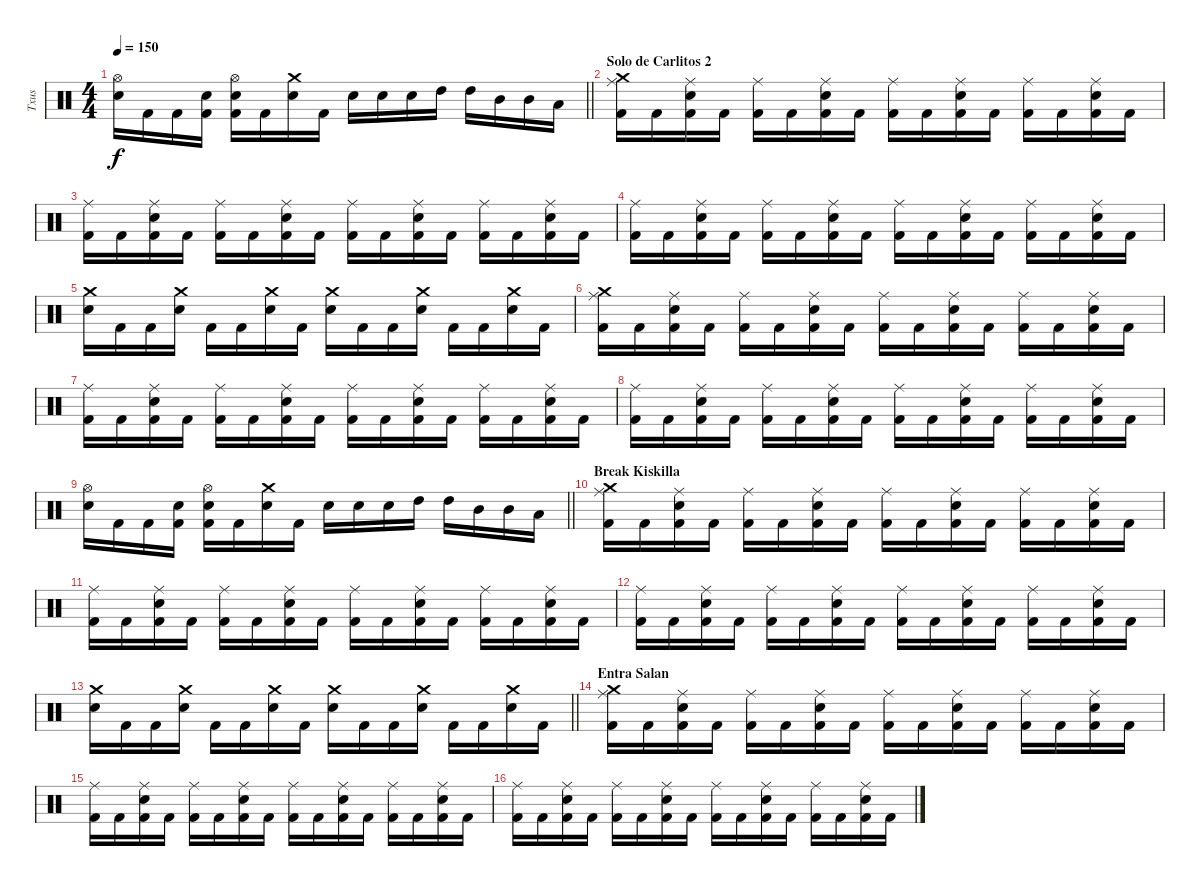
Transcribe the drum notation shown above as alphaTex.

\track ("Txus" "Txus") {instrument percussion}
\staff {score}
\articulation defaults
\ts (4 4)
\tempo 150
\clef neutral
\barLineRight lightlight
\ks c
("Hi-Hat (open)" "Electric Snare (hit)").16{dy f} "Kick (hit) 2".16 "Kick (hit) 2".16 ("Electric Snare (hit)" "Kick (hit) 2").16 ("Hi-Hat (open)" "Electric Snare (hit)" "Kick (hit) 2").16 "Kick (hit) 2".16 ("Crash medium (hit)" "Electric Snare (hit)").16 "Kick (hit) 2".16 "Electric Snare (hit)".16 "Electric Snare (hit)".16 "Electric Snare (hit)".16 "High Tom (hit)".16 "High Tom (hit)".16 "Mid Tom (hit)".16 "Mid Tom (hit)".16 "Low Tom (hit)".16 |
\section ("" "Solo de Carlitos 2")
("Crash medium (hit)" "Ride (middle)" "Kick (hit) 2").16 "Kick (hit) 2".16 ("Ride (middle)" "Electric Snare (hit)" "Kick (hit) 2").16 "Kick (hit) 2".16 ("Ride (middle)" "Kick (hit) 2").16 "Kick (hit) 2".16 ("Ride (middle)" "Electric Snare (hit)" "Kick (hit) 2").16 "Kick (hit) 2".16 ("Ride (middle)" "Kick (hit) 2").16 "Kick (hit) 2".16 ("Ride (middle)" "Electric Snare (hit)" "Kick (hit) 2").16 "Kick (hit) 2".16 ("Ride (middle)" "Kick (hit) 2").16 "Kick (hit) 2".16 ("Ride (middle)" "Electric Snare (hit)" "Kick (hit) 2").16 "Kick (hit) 2".16 |
("Ride (middle)" "Kick (hit) 2").16 "Kick (hit) 2".16 ("Ride (middle)" "Electric Snare (hit)" "Kick (hit) 2").16 "Kick (hit) 2".16 ("Ride (middle)" "Kick (hit) 2").16 "Kick (hit) 2".16 ("Ride (middle)" "Electric Snare (hit)" "Kick (hit) 2").16 "Kick (hit) 2".16 ("Ride (middle)" "Kick (hit) 2").16 "Kick (hit) 2".16 ("Ride (middle)" "Electric Snare (hit)" "Kick (hit) 2").16 "Kick (hit) 2".16 ("Ride (middle)" "Kick (hit) 2").16 "Kick (hit) 2".16 ("Ride (middle)" "Electric Snare (hit)" "Kick (hit) 2").16 "Kick (hit) 2".16 |
("Ride (middle)" "Kick (hit) 2").16 "Kick (hit) 2".16 ("Ride (middle)" "Electric Snare (hit)" "Kick (hit) 2").16 "Kick (hit) 2".16 ("Ride (middle)" "Kick (hit) 2").16 "Kick (hit) 2".16 ("Ride (middle)" "Electric Snare (hit)" "Kick (hit) 2").16 "Kick (hit) 2".16 ("Ride (middle)" "Kick (hit) 2").16 "Kick (hit) 2".16 ("Ride (middle)" "Electric Snare (hit)" "Kick (hit) 2").16 "Kick (hit) 2".16 ("Ride (middle)" "Kick (hit) 2").16 "Kick (hit) 2".16 ("Ride (middle)" "Electric Snare (hit)" "Kick (hit) 2").16 "Kick (hit) 2".16 |
("Crash medium (hit)" "Electric Snare (hit)").16 "Kick (hit) 2".16 "Kick (hit) 2".16 ("Crash medium (hit)" "Electric Snare (hit)").16 "Kick (hit) 2".16 "Kick (hit) 2".16 ("Crash medium (hit)" "Electric Snare (hit)").16 "Kick (hit) 2".16 ("Crash medium (hit)" "Electric Snare (hit)").16 "Kick (hit) 2".16 "Kick (hit) 2".16 ("Crash medium (hit)" "Electric Snare (hit)").16 "Kick (hit) 2".16 "Kick (hit) 2".16 ("Crash medium (hit)" "Electric Snare (hit)").16 "Kick (hit) 2".16 |
("Crash medium (hit)" "Ride (middle)" "Kick (hit) 2").16 "Kick (hit) 2".16 ("Ride (middle)" "Electric Snare (hit)" "Kick (hit) 2").16 "Kick (hit) 2".16 ("Ride (middle)" "Kick (hit) 2").16 "Kick (hit) 2".16 ("Ride (middle)" "Electric Snare (hit)" "Kick (hit) 2").16 "Kick (hit) 2".16 ("Ride (middle)" "Kick (hit) 2").16 "Kick (hit) 2".16 ("Ride (middle)" "Electric Snare (hit)" "Kick (hit) 2").16 "Kick (hit) 2".16 ("Ride (middle)" "Kick (hit) 2").16 "Kick (hit) 2".16 ("Ride (middle)" "Electric Snare (hit)" "Kick (hit) 2").16 "Kick (hit) 2".16 |
("Ride (middle)" "Kick (hit) 2").16 "Kick (hit) 2".16 ("Ride (middle)" "Electric Snare (hit)" "Kick (hit) 2").16 "Kick (hit) 2".16 ("Ride (middle)" "Kick (hit) 2").16 "Kick (hit) 2".16 ("Ride (middle)" "Electric Snare (hit)" "Kick (hit) 2").16 "Kick (hit) 2".16 ("Ride (middle)" "Kick (hit) 2").16 "Kick (hit) 2".16 ("Ride (middle)" "Electric Snare (hit)" "Kick (hit) 2").16 "Kick (hit) 2".16 ("Ride (middle)" "Kick (hit) 2").16 "Kick (hit) 2".16 ("Ride (middle)" "Electric Snare (hit)" "Kick (hit) 2").16 "Kick (hit) 2".16 |
("Ride (middle)" "Kick (hit) 2").16 "Kick (hit) 2".16 ("Ride (middle)" "Electric Snare (hit)" "Kick (hit) 2").16 "Kick (hit) 2".16 ("Ride (middle)" "Kick (hit) 2").16 "Kick (hit) 2".16 ("Ride (middle)" "Electric Snare (hit)" "Kick (hit) 2").16 "Kick (hit) 2".16 ("Ride (middle)" "Kick (hit) 2").16 "Kick (hit) 2".16 ("Ride (middle)" "Electric Snare (hit)" "Kick (hit) 2").16 "Kick (hit) 2".16 ("Ride (middle)" "Kick (hit) 2").16 "Kick (hit) 2".16 ("Ride (middle)" "Electric Snare (hit)" "Kick (hit) 2").16 "Kick (hit) 2".16 |
\barLineRight lightlight
("Hi-Hat (open)" "Electric Snare (hit)").16 "Kick (hit) 2".16 "Kick (hit) 2".16 ("Electric Snare (hit)" "Kick (hit) 2").16 ("Hi-Hat (open)" "Electric Snare (hit)" "Kick (hit) 2").16 "Kick (hit) 2".16 ("Crash medium (hit)" "Electric Snare (hit)").16 "Kick (hit) 2".16 "Electric Snare (hit)".16 "Electric Snare (hit)".16 "Electric Snare (hit)".16 "High Tom (hit)".16 "High Tom (hit)".16 "Mid Tom (hit)".16 "Mid Tom (hit)".16 "Low Tom (hit)".16 |
\section ("" "Break Kiskilla")
("Crash medium (hit)" "Ride (middle)" "Kick (hit) 2").16 "Kick (hit) 2".16 ("Ride (middle)" "Electric Snare (hit)" "Kick (hit) 2").16 "Kick (hit) 2".16 ("Ride (middle)" "Kick (hit) 2").16 "Kick (hit) 2".16 ("Ride (middle)" "Electric Snare (hit)" "Kick (hit) 2").16 "Kick (hit) 2".16 ("Ride (middle)" "Kick (hit) 2").16 "Kick (hit) 2".16 ("Ride (middle)" "Electric Snare (hit)" "Kick (hit) 2").16 "Kick (hit) 2".16 ("Ride (middle)" "Kick (hit) 2").16 "Kick (hit) 2".16 ("Ride (middle)" "Electric Snare (hit)" "Kick (hit) 2").16 "Kick (hit) 2".16 |
("Ride (middle)" "Kick (hit) 2").16 "Kick (hit) 2".16 ("Ride (middle)" "Electric Snare (hit)" "Kick (hit) 2").16 "Kick (hit) 2".16 ("Ride (middle)" "Kick (hit) 2").16 "Kick (hit) 2".16 ("Ride (middle)" "Electric Snare (hit)" "Kick (hit) 2").16 "Kick (hit) 2".16 ("Ride (middle)" "Kick (hit) 2").16 "Kick (hit) 2".16 ("Ride (middle)" "Electric Snare (hit)" "Kick (hit) 2").16 "Kick (hit) 2".16 ("Ride (middle)" "Kick (hit) 2").16 "Kick (hit) 2".16 ("Ride (middle)" "Electric Snare (hit)" "Kick (hit) 2").16 "Kick (hit) 2".16 |
("Ride (middle)" "Kick (hit) 2").16 "Kick (hit) 2".16 ("Ride (middle)" "Electric Snare (hit)" "Kick (hit) 2").16 "Kick (hit) 2".16 ("Ride (middle)" "Kick (hit) 2").16 "Kick (hit) 2".16 ("Ride (middle)" "Electric Snare (hit)" "Kick (hit) 2").16 "Kick (hit) 2".16 ("Ride (middle)" "Kick (hit) 2").16 "Kick (hit) 2".16 ("Ride (middle)" "Electric Snare (hit)" "Kick (hit) 2").16 "Kick (hit) 2".16 ("Ride (middle)" "Kick (hit) 2").16 "Kick (hit) 2".16 ("Ride (middle)" "Electric Snare (hit)" "Kick (hit) 2").16 "Kick (hit) 2".16 |
\barLineRight lightlight
("Crash medium (hit)" "Electric Snare (hit)").16 "Kick (hit) 2".16 "Kick (hit) 2".16 ("Crash medium (hit)" "Electric Snare (hit)").16 "Kick (hit) 2".16 "Kick (hit) 2".16 ("Crash medium (hit)" "Electric Snare (hit)").16 "Kick (hit) 2".16 ("Crash medium (hit)" "Electric Snare (hit)").16 "Kick (hit) 2".16 "Kick (hit) 2".16 ("Crash medium (hit)" "Electric Snare (hit)").16 "Kick (hit) 2".16 "Kick (hit) 2".16 ("Crash medium (hit)" "Electric Snare (hit)").16 "Kick (hit) 2".16 |
\section ("" "Entra Salan")
("Crash medium (hit)" "Ride (middle)" "Kick (hit) 2").16 "Kick (hit) 2".16 ("Ride (middle)" "Electric Snare (hit)" "Kick (hit) 2").16 "Kick (hit) 2".16 ("Ride (middle)" "Kick (hit) 2").16 "Kick (hit) 2".16 ("Ride (middle)" "Electric Snare (hit)" "Kick (hit) 2").16 "Kick (hit) 2".16 ("Ride (middle)" "Kick (hit) 2").16 "Kick (hit) 2".16 ("Ride (middle)" "Electric Snare (hit)" "Kick (hit) 2").16 "Kick (hit) 2".16 ("Ride (middle)" "Kick (hit) 2").16 "Kick (hit) 2".16 ("Ride (middle)" "Electric Snare (hit)" "Kick (hit) 2").16 "Kick (hit) 2".16 |
("Ride (middle)" "Kick (hit) 2").16 "Kick (hit) 2".16 ("Ride (middle)" "Electric Snare (hit)" "Kick (hit) 2").16 "Kick (hit) 2".16 ("Ride (middle)" "Kick (hit) 2").16 "Kick (hit) 2".16 ("Ride (middle)" "Electric Snare (hit)" "Kick (hit) 2").16 "Kick (hit) 2".16 ("Ride (middle)" "Kick (hit) 2").16 "Kick (hit) 2".16 ("Ride (middle)" "Electric Snare (hit)" "Kick (hit) 2").16 "Kick (hit) 2".16 ("Ride (middle)" "Kick (hit) 2").16 "Kick (hit) 2".16 ("Ride (middle)" "Electric Snare (hit)" "Kick (hit) 2").16 "Kick (hit) 2".16 |
("Ride (middle)" "Kick (hit) 2").16 "Kick (hit) 2".16 ("Ride (middle)" "Electric Snare (hit)" "Kick (hit) 2").16 "Kick (hit) 2".16 ("Ride (middle)" "Kick (hit) 2").16 "Kick (hit) 2".16 ("Ride (middle)" "Electric Snare (hit)" "Kick (hit) 2").16 "Kick (hit) 2".16 ("Ride (middle)" "Kick (hit) 2").16 "Kick (hit) 2".16 ("Ride (middle)" "Electric Snare (hit)" "Kick (hit) 2").16 "Kick (hit) 2".16 ("Ride (middle)" "Kick (hit) 2").16 "Kick (hit) 2".16 ("Ride (middle)" "Electric Snare (hit)" "Kick (hit) 2").16 "Kick (hit) 2".16
